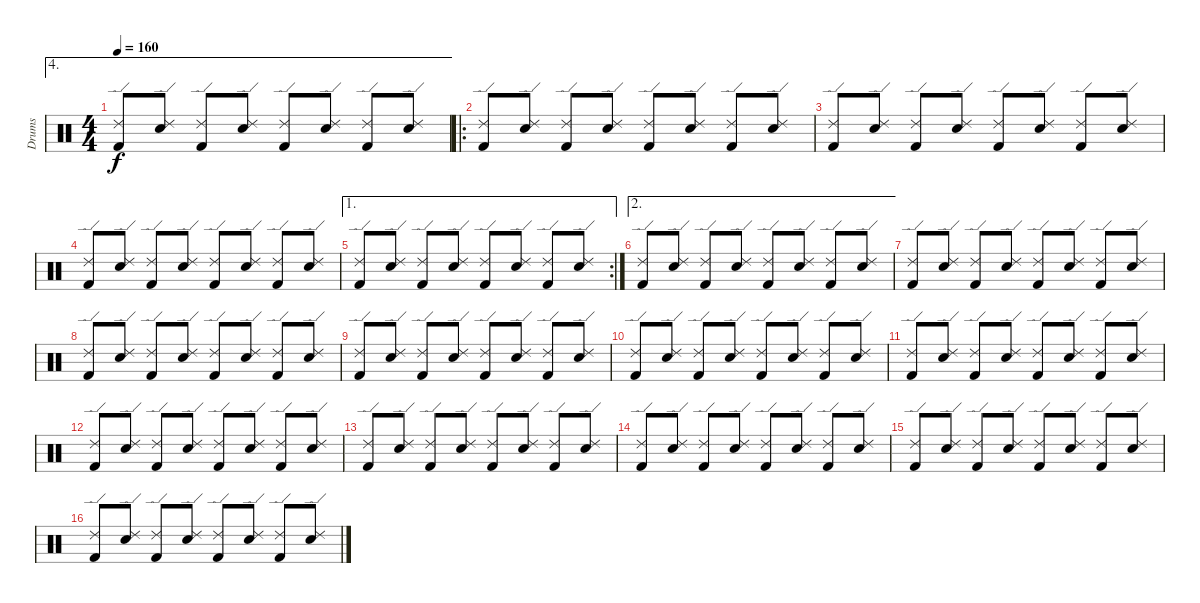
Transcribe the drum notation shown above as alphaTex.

\track ("Drums" "Drums") {instrument percussion}
\staff {score}
\articulation defaults
\ae 4
\ts (4 4)
\tempo 160
\clef neutral
\ks c
("Ride (edge) 2" "Kick (hit) 2").8{dy f} ("Ride (edge) 2" "Snare (hit) 2").8 ("Ride (edge) 2" "Kick (hit) 2").8 ("Ride (edge) 2" "Snare (hit) 2").8 ("Ride (edge) 2" "Kick (hit) 2").8 ("Ride (edge) 2" "Snare (hit) 2").8 ("Ride (edge) 2" "Kick (hit) 2").8 ("Ride (edge) 2" "Snare (hit) 2").8 |
\ro
("Ride (edge) 2" "Kick (hit) 2").8 ("Ride (edge) 2" "Snare (hit) 2").8 ("Ride (edge) 2" "Kick (hit) 2").8 ("Ride (edge) 2" "Snare (hit) 2").8 ("Ride (edge) 2" "Kick (hit) 2").8 ("Ride (edge) 2" "Snare (hit) 2").8 ("Ride (edge) 2" "Kick (hit) 2").8 ("Ride (edge) 2" "Snare (hit) 2").8 |
("Ride (edge) 2" "Kick (hit) 2").8 ("Ride (edge) 2" "Snare (hit) 2").8 ("Ride (edge) 2" "Kick (hit) 2").8 ("Ride (edge) 2" "Snare (hit) 2").8 ("Ride (edge) 2" "Kick (hit) 2").8 ("Ride (edge) 2" "Snare (hit) 2").8 ("Ride (edge) 2" "Kick (hit) 2").8 ("Ride (edge) 2" "Snare (hit) 2").8 |
("Ride (edge) 2" "Kick (hit) 2").8 ("Ride (edge) 2" "Snare (hit) 2").8 ("Ride (edge) 2" "Kick (hit) 2").8 ("Ride (edge) 2" "Snare (hit) 2").8 ("Ride (edge) 2" "Kick (hit) 2").8 ("Ride (edge) 2" "Snare (hit) 2").8 ("Ride (edge) 2" "Kick (hit) 2").8 ("Ride (edge) 2" "Snare (hit) 2").8 |
\ae 1
\rc 2
("Ride (edge) 2" "Kick (hit) 2").8 ("Ride (edge) 2" "Snare (hit) 2").8 ("Ride (edge) 2" "Kick (hit) 2").8 ("Ride (edge) 2" "Snare (hit) 2").8 ("Ride (edge) 2" "Kick (hit) 2").8 ("Ride (edge) 2" "Snare (hit) 2").8 ("Ride (edge) 2" "Kick (hit) 2").8 ("Ride (edge) 2" "Snare (hit) 2").8 |
\ae 2
("Ride (edge) 2" "Kick (hit) 2").8 ("Ride (edge) 2" "Snare (hit) 2").8 ("Ride (edge) 2" "Kick (hit) 2").8 ("Ride (edge) 2" "Snare (hit) 2").8 ("Ride (edge) 2" "Kick (hit) 2").8 ("Ride (edge) 2" "Snare (hit) 2").8 ("Ride (edge) 2" "Kick (hit) 2").8 ("Ride (edge) 2" "Snare (hit) 2").8 |
("Ride (edge) 2" "Kick (hit) 2").8 ("Ride (edge) 2" "Snare (hit) 2").8 ("Ride (edge) 2" "Kick (hit) 2").8 ("Ride (edge) 2" "Snare (hit) 2").8 ("Ride (edge) 2" "Kick (hit) 2").8 ("Ride (edge) 2" "Snare (hit) 2").8 ("Ride (edge) 2" "Kick (hit) 2").8 ("Ride (edge) 2" "Snare (hit) 2").8 |
("Ride (edge) 2" "Kick (hit) 2").8 ("Ride (edge) 2" "Snare (hit) 2").8 ("Ride (edge) 2" "Kick (hit) 2").8 ("Ride (edge) 2" "Snare (hit) 2").8 ("Ride (edge) 2" "Kick (hit) 2").8 ("Ride (edge) 2" "Snare (hit) 2").8 ("Ride (edge) 2" "Kick (hit) 2").8 ("Ride (edge) 2" "Snare (hit) 2").8 |
("Ride (edge) 2" "Kick (hit) 2").8 ("Ride (edge) 2" "Snare (hit) 2").8 ("Ride (edge) 2" "Kick (hit) 2").8 ("Ride (edge) 2" "Snare (hit) 2").8 ("Ride (edge) 2" "Kick (hit) 2").8 ("Ride (edge) 2" "Snare (hit) 2").8 ("Ride (edge) 2" "Kick (hit) 2").8 ("Ride (edge) 2" "Snare (hit) 2").8 |
("Ride (edge) 2" "Kick (hit) 2").8 ("Ride (edge) 2" "Snare (hit) 2").8 ("Ride (edge) 2" "Kick (hit) 2").8 ("Ride (edge) 2" "Snare (hit) 2").8 ("Ride (edge) 2" "Kick (hit) 2").8 ("Ride (edge) 2" "Snare (hit) 2").8 ("Ride (edge) 2" "Kick (hit) 2").8 ("Ride (edge) 2" "Snare (hit) 2").8 |
("Ride (edge) 2" "Kick (hit) 2").8 ("Ride (edge) 2" "Snare (hit) 2").8 ("Ride (edge) 2" "Kick (hit) 2").8 ("Ride (edge) 2" "Snare (hit) 2").8 ("Ride (edge) 2" "Kick (hit) 2").8 ("Ride (edge) 2" "Snare (hit) 2").8 ("Ride (edge) 2" "Kick (hit) 2").8 ("Ride (edge) 2" "Snare (hit) 2").8 |
("Ride (edge) 2" "Kick (hit) 2").8 ("Ride (edge) 2" "Snare (hit) 2").8 ("Ride (edge) 2" "Kick (hit) 2").8 ("Ride (edge) 2" "Snare (hit) 2").8 ("Ride (edge) 2" "Kick (hit) 2").8 ("Ride (edge) 2" "Snare (hit) 2").8 ("Ride (edge) 2" "Kick (hit) 2").8 ("Ride (edge) 2" "Snare (hit) 2").8 |
("Ride (edge) 2" "Kick (hit) 2").8 ("Ride (edge) 2" "Snare (hit) 2").8 ("Ride (edge) 2" "Kick (hit) 2").8 ("Ride (edge) 2" "Snare (hit) 2").8 ("Ride (edge) 2" "Kick (hit) 2").8 ("Ride (edge) 2" "Snare (hit) 2").8 ("Ride (edge) 2" "Kick (hit) 2").8 ("Ride (edge) 2" "Snare (hit) 2").8 |
("Ride (edge) 2" "Kick (hit) 2").8 ("Ride (edge) 2" "Snare (hit) 2").8 ("Ride (edge) 2" "Kick (hit) 2").8 ("Ride (edge) 2" "Snare (hit) 2").8 ("Ride (edge) 2" "Kick (hit) 2").8 ("Ride (edge) 2" "Snare (hit) 2").8 ("Ride (edge) 2" "Kick (hit) 2").8 ("Ride (edge) 2" "Snare (hit) 2").8 |
("Ride (edge) 2" "Kick (hit) 2").8 ("Ride (edge) 2" "Snare (hit) 2").8 ("Ride (edge) 2" "Kick (hit) 2").8 ("Ride (edge) 2" "Snare (hit) 2").8 ("Ride (edge) 2" "Kick (hit) 2").8 ("Ride (edge) 2" "Snare (hit) 2").8 ("Ride (edge) 2" "Kick (hit) 2").8 ("Ride (edge) 2" "Snare (hit) 2").8 |
("Ride (edge) 2" "Kick (hit) 2").8 ("Ride (edge) 2" "Snare (hit) 2").8 ("Ride (edge) 2" "Kick (hit) 2").8 ("Ride (edge) 2" "Snare (hit) 2").8 ("Ride (edge) 2" "Kick (hit) 2").8 ("Ride (edge) 2" "Snare (hit) 2").8 ("Ride (edge) 2" "Kick (hit) 2").8 ("Ride (edge) 2" "Snare (hit) 2").8
